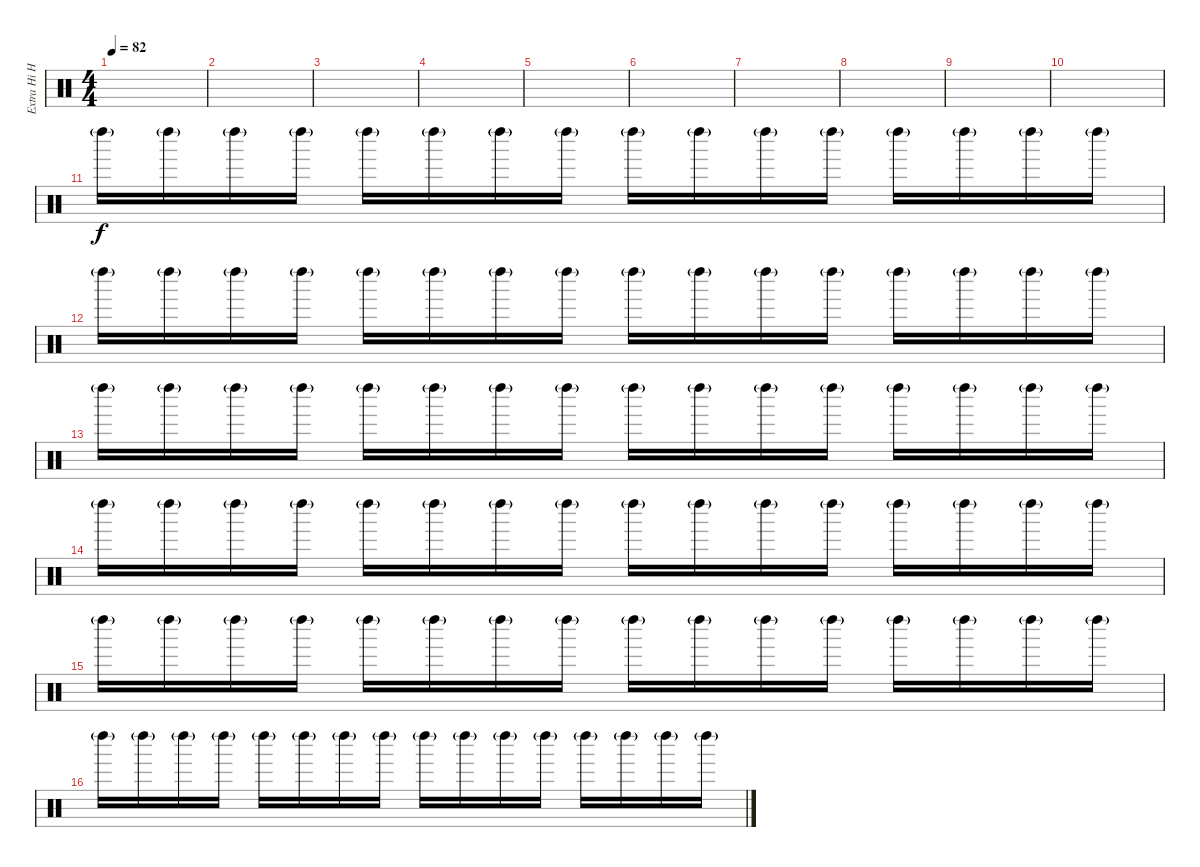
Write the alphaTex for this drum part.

\track ("Extra Hi Hat" "Extra Hi H") {instrument percussion}
\staff {score}
\articulation defaults
\ts (4 4)
\tempo 82
\clef neutral
\ks c
|
|
|
|
|
|
|
|
|
|
"Left Maraca (hit)"{g}.16 "Left Maraca (hit)"{g}.16 "Left Maraca (hit)"{g}.16 "Left Maraca (hit)"{g}.16 "Left Maraca (hit)"{g}.16 "Left Maraca (hit)"{g}.16 "Left Maraca (hit)"{g}.16 "Left Maraca (hit)"{g}.16 "Left Maraca (hit)"{g}.16 "Left Maraca (hit)"{g}.16 "Left Maraca (hit)"{g}.16 "Left Maraca (hit)"{g}.16 "Left Maraca (hit)"{g}.16 "Left Maraca (hit)"{g}.16 "Left Maraca (hit)"{g}.16 "Left Maraca (hit)"{g}.16 |
"Left Maraca (hit)"{g}.16 "Left Maraca (hit)"{g}.16 "Left Maraca (hit)"{g}.16 "Left Maraca (hit)"{g}.16 "Left Maraca (hit)"{g}.16 "Left Maraca (hit)"{g}.16 "Left Maraca (hit)"{g}.16 "Left Maraca (hit)"{g}.16 "Left Maraca (hit)"{g}.16 "Left Maraca (hit)"{g}.16 "Left Maraca (hit)"{g}.16 "Left Maraca (hit)"{g}.16 "Left Maraca (hit)"{g}.16 "Left Maraca (hit)"{g}.16 "Left Maraca (hit)"{g}.16 "Left Maraca (hit)"{g}.16 |
"Left Maraca (hit)"{g}.16 "Left Maraca (hit)"{g}.16 "Left Maraca (hit)"{g}.16 "Left Maraca (hit)"{g}.16 "Left Maraca (hit)"{g}.16 "Left Maraca (hit)"{g}.16 "Left Maraca (hit)"{g}.16 "Left Maraca (hit)"{g}.16 "Left Maraca (hit)"{g}.16 "Left Maraca (hit)"{g}.16 "Left Maraca (hit)"{g}.16 "Left Maraca (hit)"{g}.16 "Left Maraca (hit)"{g}.16 "Left Maraca (hit)"{g}.16 "Left Maraca (hit)"{g}.16 "Left Maraca (hit)"{g}.16 |
"Left Maraca (hit)"{g}.16 "Left Maraca (hit)"{g}.16 "Left Maraca (hit)"{g}.16 "Left Maraca (hit)"{g}.16 "Left Maraca (hit)"{g}.16 "Left Maraca (hit)"{g}.16 "Left Maraca (hit)"{g}.16 "Left Maraca (hit)"{g}.16 "Left Maraca (hit)"{g}.16 "Left Maraca (hit)"{g}.16 "Left Maraca (hit)"{g}.16 "Left Maraca (hit)"{g}.16 "Left Maraca (hit)"{g}.16 "Left Maraca (hit)"{g}.16 "Left Maraca (hit)"{g}.16 "Left Maraca (hit)"{g}.16 |
"Left Maraca (hit)"{g}.16 "Left Maraca (hit)"{g}.16 "Left Maraca (hit)"{g}.16 "Left Maraca (hit)"{g}.16 "Left Maraca (hit)"{g}.16 "Left Maraca (hit)"{g}.16 "Left Maraca (hit)"{g}.16 "Left Maraca (hit)"{g}.16 "Left Maraca (hit)"{g}.16 "Left Maraca (hit)"{g}.16 "Left Maraca (hit)"{g}.16 "Left Maraca (hit)"{g}.16 "Left Maraca (hit)"{g}.16 "Left Maraca (hit)"{g}.16 "Left Maraca (hit)"{g}.16 "Left Maraca (hit)"{g}.16 |
"Left Maraca (hit)"{g}.16 "Left Maraca (hit)"{g}.16 "Left Maraca (hit)"{g}.16 "Left Maraca (hit)"{g}.16 "Left Maraca (hit)"{g}.16 "Left Maraca (hit)"{g}.16 "Left Maraca (hit)"{g}.16 "Left Maraca (hit)"{g}.16 "Left Maraca (hit)"{g}.16 "Left Maraca (hit)"{g}.16 "Left Maraca (hit)"{g}.16 "Left Maraca (hit)"{g}.16 "Left Maraca (hit)"{g}.16 "Left Maraca (hit)"{g}.16 "Left Maraca (hit)"{g}.16 "Left Maraca (hit)"{g}.16
